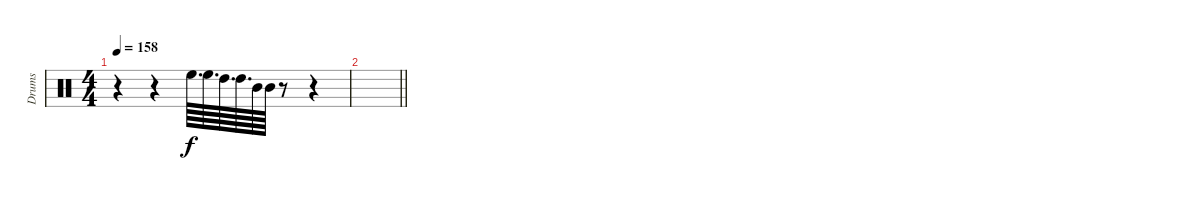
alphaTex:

\track ("Drums" "Drums") {instrument percussion}
\staff
\articulation defaults
\ts (4 4)
\tempo 158
\clef neutral
\ks c
r.4{dy f} r.4 "High Floor Tom (hit)".64{d} "High Floor Tom (hit)".64{d} "High Tom (hit)".64{d} "High Tom (hit)".64{d} "Mid Tom (hit)".64 "Mid Tom (hit)".64 r.8 r.4 |
\barLineRight lightlight
